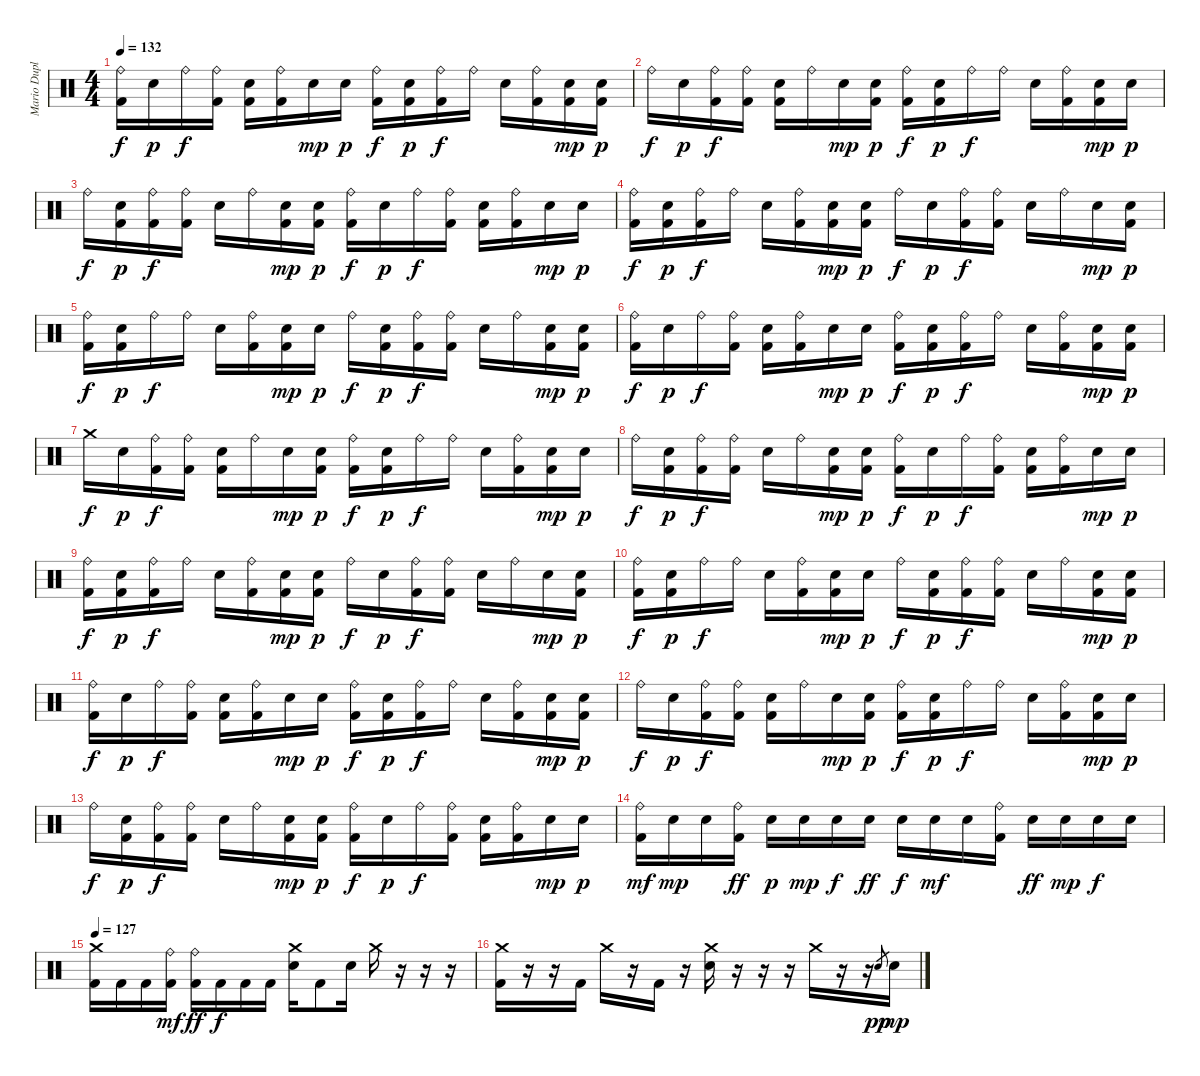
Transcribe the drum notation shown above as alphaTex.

\track ("Mario Duplantier" "Mario Dupl") {instrument percussion}
\staff {score}
\articulation defaults
\ts (4 4)
\tempo 132
\clef neutral
\ks c
("Ride (bell)" "Kick (hit) 2").16{dy f} "Electric Snare (hit)".16{dy p} "Ride (bell)".16{dy f} ("Ride (bell)" "Kick (hit) 2").16 ("Electric Snare (hit)" "Kick (hit) 2").16 ("Ride (bell)" "Kick (hit) 2").16 "Electric Snare (hit)".16{dy mp} "Electric Snare (hit)".16{dy p} ("Ride (bell)" "Kick (hit) 2").16{dy f} ("Electric Snare (hit)" "Kick (hit) 2").16{dy p} ("Ride (bell)" "Kick (hit) 2").16{dy f} "Ride (bell)".16 "Electric Snare (hit)".16 ("Ride (bell)" "Kick (hit) 2").16 ("Electric Snare (hit)" "Kick (hit) 2").16{dy mp} ("Electric Snare (hit)" "Kick (hit) 2").16{dy p} |
"Ride (bell)".16{dy f} "Electric Snare (hit)".16{dy p} ("Ride (bell)" "Kick (hit) 2").16{dy f} ("Ride (bell)" "Kick (hit) 2").16 ("Electric Snare (hit)" "Kick (hit) 2").16 "Ride (bell)".16 "Electric Snare (hit)".16{dy mp} ("Electric Snare (hit)" "Kick (hit) 2").16{dy p} ("Ride (bell)" "Kick (hit) 2").16{dy f} ("Electric Snare (hit)" "Kick (hit) 2").16{dy p} "Ride (bell)".16{dy f} "Ride (bell)".16 "Electric Snare (hit)".16 ("Ride (bell)" "Kick (hit) 2").16 ("Electric Snare (hit)" "Kick (hit) 2").16{dy mp} "Electric Snare (hit)".16{dy p} |
"Ride (bell)".16{dy f} ("Electric Snare (hit)" "Kick (hit) 2").16{dy p} ("Ride (bell)" "Kick (hit) 2").16{dy f} ("Ride (bell)" "Kick (hit) 2").16 "Electric Snare (hit)".16 "Ride (bell)".16 ("Electric Snare (hit)" "Kick (hit) 2").16{dy mp} ("Electric Snare (hit)" "Kick (hit) 2").16{dy p} ("Ride (bell)" "Kick (hit) 2").16{dy f} "Electric Snare (hit)".16{dy p} "Ride (bell)".16{dy f} ("Ride (bell)" "Kick (hit) 2").16 ("Electric Snare (hit)" "Kick (hit) 2").16 ("Ride (bell)" "Kick (hit) 2").16 "Electric Snare (hit)".16{dy mp} "Electric Snare (hit)".16{dy p} |
("Ride (bell)" "Kick (hit) 2").16{dy f} ("Electric Snare (hit)" "Kick (hit) 2").16{dy p} ("Ride (bell)" "Kick (hit) 2").16{dy f} "Ride (bell)".16 "Electric Snare (hit)".16 ("Ride (bell)" "Kick (hit) 2").16 ("Electric Snare (hit)" "Kick (hit) 2").16{dy mp} ("Electric Snare (hit)" "Kick (hit) 2").16{dy p} "Ride (bell)".16{dy f} "Electric Snare (hit)".16{dy p} ("Ride (bell)" "Kick (hit) 2").16{dy f} ("Ride (bell)" "Kick (hit) 2").16 "Electric Snare (hit)".16 "Ride (bell)".16 "Electric Snare (hit)".16{dy mp} ("Electric Snare (hit)" "Kick (hit) 2").16{dy p} |
("Ride (bell)" "Kick (hit) 2").16{dy f} ("Electric Snare (hit)" "Kick (hit) 2").16{dy p} "Ride (bell)".16{dy f} "Ride (bell)".16 "Electric Snare (hit)".16 ("Ride (bell)" "Kick (hit) 2").16 ("Electric Snare (hit)" "Kick (hit) 2").16{dy mp} "Electric Snare (hit)".16{dy p} "Ride (bell)".16{dy f} ("Electric Snare (hit)" "Kick (hit) 2").16{dy p} ("Ride (bell)" "Kick (hit) 2").16{dy f} ("Ride (bell)" "Kick (hit) 2").16 "Electric Snare (hit)".16 "Ride (bell)".16 ("Electric Snare (hit)" "Kick (hit) 2").16{dy mp} ("Electric Snare (hit)" "Kick (hit) 2").16{dy p} |
("Ride (bell)" "Kick (hit) 2").16{dy f} "Electric Snare (hit)".16{dy p} "Ride (bell)".16{dy f} ("Ride (bell)" "Kick (hit) 2").16 ("Electric Snare (hit)" "Kick (hit) 2").16 ("Ride (bell)" "Kick (hit) 2").16 "Electric Snare (hit)".16{dy mp} "Electric Snare (hit)".16{dy p} ("Ride (bell)" "Kick (hit) 2").16{dy f} ("Electric Snare (hit)" "Kick (hit) 2").16{dy p} ("Ride (bell)" "Kick (hit) 2").16{dy f} "Ride (bell)".16 "Electric Snare (hit)".16 ("Ride (bell)" "Kick (hit) 2").16 ("Electric Snare (hit)" "Kick (hit) 2").16{dy mp} ("Electric Snare (hit)" "Kick (hit) 2").16{dy p} |
"Crash medium (hit)".16{dy f} "Electric Snare (hit)".16{dy p} ("Ride (bell)" "Kick (hit) 2").16{dy f} ("Ride (bell)" "Kick (hit) 2").16 ("Electric Snare (hit)" "Kick (hit) 2").16 "Ride (bell)".16 "Electric Snare (hit)".16{dy mp} ("Electric Snare (hit)" "Kick (hit) 2").16{dy p} ("Ride (bell)" "Kick (hit) 2").16{dy f} ("Electric Snare (hit)" "Kick (hit) 2").16{dy p} "Ride (bell)".16{dy f} "Ride (bell)".16 "Electric Snare (hit)".16 ("Ride (bell)" "Kick (hit) 2").16 ("Electric Snare (hit)" "Kick (hit) 2").16{dy mp} "Electric Snare (hit)".16{dy p} |
"Ride (bell)".16{dy f} ("Electric Snare (hit)" "Kick (hit) 2").16{dy p} ("Ride (bell)" "Kick (hit) 2").16{dy f} ("Ride (bell)" "Kick (hit) 2").16 "Electric Snare (hit)".16 "Ride (bell)".16 ("Electric Snare (hit)" "Kick (hit) 2").16{dy mp} ("Electric Snare (hit)" "Kick (hit) 2").16{dy p} ("Ride (bell)" "Kick (hit) 2").16{dy f} "Electric Snare (hit)".16{dy p} "Ride (bell)".16{dy f} ("Ride (bell)" "Kick (hit) 2").16 ("Electric Snare (hit)" "Kick (hit) 2").16 ("Ride (bell)" "Kick (hit) 2").16 "Electric Snare (hit)".16{dy mp} "Electric Snare (hit)".16{dy p} |
("Ride (bell)" "Kick (hit) 2").16{dy f} ("Electric Snare (hit)" "Kick (hit) 2").16{dy p} ("Ride (bell)" "Kick (hit) 2").16{dy f} "Ride (bell)".16 "Electric Snare (hit)".16 ("Ride (bell)" "Kick (hit) 2").16 ("Electric Snare (hit)" "Kick (hit) 2").16{dy mp} ("Electric Snare (hit)" "Kick (hit) 2").16{dy p} "Ride (bell)".16{dy f} "Electric Snare (hit)".16{dy p} ("Ride (bell)" "Kick (hit) 2").16{dy f} ("Ride (bell)" "Kick (hit) 2").16 "Electric Snare (hit)".16 "Ride (bell)".16 "Electric Snare (hit)".16{dy mp} ("Electric Snare (hit)" "Kick (hit) 2").16{dy p} |
("Ride (bell)" "Kick (hit) 2").16{dy f} ("Electric Snare (hit)" "Kick (hit) 2").16{dy p} "Ride (bell)".16{dy f} "Ride (bell)".16 "Electric Snare (hit)".16 ("Ride (bell)" "Kick (hit) 2").16 ("Electric Snare (hit)" "Kick (hit) 2").16{dy mp} "Electric Snare (hit)".16{dy p} "Ride (bell)".16{dy f} ("Electric Snare (hit)" "Kick (hit) 2").16{dy p} ("Ride (bell)" "Kick (hit) 2").16{dy f} ("Ride (bell)" "Kick (hit) 2").16 "Electric Snare (hit)".16 "Ride (bell)".16 ("Electric Snare (hit)" "Kick (hit) 2").16{dy mp} ("Electric Snare (hit)" "Kick (hit) 2").16{dy p} |
("Ride (bell)" "Kick (hit) 2").16{dy f} "Electric Snare (hit)".16{dy p} "Ride (bell)".16{dy f} ("Ride (bell)" "Kick (hit) 2").16 ("Electric Snare (hit)" "Kick (hit) 2").16 ("Ride (bell)" "Kick (hit) 2").16 "Electric Snare (hit)".16{dy mp} "Electric Snare (hit)".16{dy p} ("Ride (bell)" "Kick (hit) 2").16{dy f} ("Electric Snare (hit)" "Kick (hit) 2").16{dy p} ("Ride (bell)" "Kick (hit) 2").16{dy f} "Ride (bell)".16 "Electric Snare (hit)".16 ("Ride (bell)" "Kick (hit) 2").16 ("Electric Snare (hit)" "Kick (hit) 2").16{dy mp} ("Electric Snare (hit)" "Kick (hit) 2").16{dy p} |
"Ride (bell)".16{dy f} "Electric Snare (hit)".16{dy p} ("Ride (bell)" "Kick (hit) 2").16{dy f} ("Ride (bell)" "Kick (hit) 2").16 ("Electric Snare (hit)" "Kick (hit) 2").16 "Ride (bell)".16 "Electric Snare (hit)".16{dy mp} ("Electric Snare (hit)" "Kick (hit) 2").16{dy p} ("Ride (bell)" "Kick (hit) 2").16{dy f} ("Electric Snare (hit)" "Kick (hit) 2").16{dy p} "Ride (bell)".16{dy f} "Ride (bell)".16 "Electric Snare (hit)".16 ("Ride (bell)" "Kick (hit) 2").16 ("Electric Snare (hit)" "Kick (hit) 2").16{dy mp} "Electric Snare (hit)".16{dy p} |
"Ride (bell)".16{dy f} ("Electric Snare (hit)" "Kick (hit) 2").16{dy p} ("Ride (bell)" "Kick (hit) 2").16{dy f} ("Ride (bell)" "Kick (hit) 2").16 "Electric Snare (hit)".16 "Ride (bell)".16 ("Electric Snare (hit)" "Kick (hit) 2").16{dy mp} ("Electric Snare (hit)" "Kick (hit) 2").16{dy p} ("Ride (bell)" "Kick (hit) 2").16{dy f} "Electric Snare (hit)".16{dy p} "Ride (bell)".16{dy f} ("Ride (bell)" "Kick (hit) 2").16 ("Electric Snare (hit)" "Kick (hit) 2").16 ("Ride (bell)" "Kick (hit) 2").16 "Electric Snare (hit)".16{dy mp} "Electric Snare (hit)".16{dy p} |
("Ride (bell)" "Kick (hit) 2").16{dy mf} "Electric Snare (hit)".16{dy mp} "Electric Snare (hit)".16 ("Ride (bell)" "Kick (hit) 2").16{dy ff} "Electric Snare (hit)".16{dy p} "Electric Snare (hit)".16{dy mp} "Electric Snare (hit)".16{dy f} "Electric Snare (hit)".16{dy ff} "Electric Snare (hit)".16{dy f} "Electric Snare (hit)".16{dy mf} "Electric Snare (hit)".16 ("Ride (bell)" "Kick (hit) 2").16 "Electric Snare (hit)".16{dy ff} "Electric Snare (hit)".16{dy mp} "Electric Snare (hit)".16{dy f} "Electric Snare (hit)".16 |
\tempo 127
("Crash medium (hit)" "Kick (hit) 2").16 "Kick (hit) 2".16 "Kick (hit) 2".16 ("Ride (bell)" "Kick (hit) 2").16{dy mf} ("Ride (bell)" "Kick (hit) 2").16{dy ff} "Kick (hit) 2".16{dy f} "Kick (hit) 2".16 "Kick (hit) 2".16 ("Crash medium (hit)" "Electric Snare (hit)").16 "Kick (hit) 2".8 "Electric Snare (hit)".16 "Crash medium (hit)".16 r.16 r.16 r.16 |
("Crash medium (hit)" "Kick (hit) 2").16 r.16 r.16 "Kick (hit) 2".16 "Crash medium (hit)".16 r.16 "Kick (hit) 2".16 r.16 ("Crash medium (hit)" "Electric Snare (hit)").16 r.16 r.16 r.16 "Crash medium (hit)".16 r.16 r.16 "Electric Snare (hit)".8{gr dy pp} "Electric Snare (hit)".16{dy mp}
